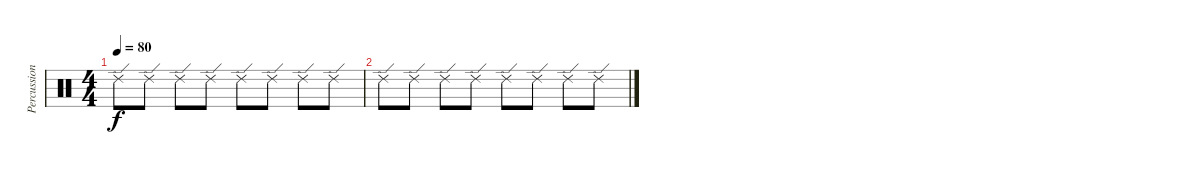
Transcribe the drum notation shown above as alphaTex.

\track ("Percussion" "Percussion") {instrument percussion}
\staff {score}
\articulation defaults
\ts (4 4)
\tempo 80
\clef neutral
\ks c "Ride (edge) 2".8{dy f} "Ride (edge) 2".8 "Ride (edge) 2".8 "Ride (edge) 2".8 "Ride (edge) 2".8 "Ride (edge) 2".8 "Ride (edge) 2".8 "Ride (edge) 2".8
|
"Ride (edge) 2".8 "Ride (edge) 2".8 "Ride (edge) 2".8 "Ride (edge) 2".8 "Ride (edge) 2".8 "Ride (edge) 2".8 "Ride (edge) 2".8 "Ride (edge) 2".8
